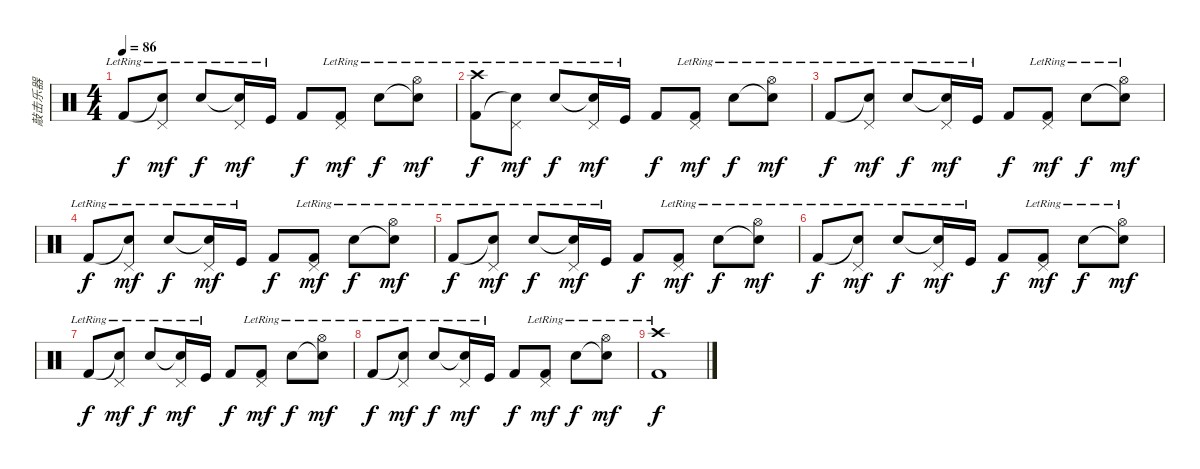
\track ("敲击乐器" "敲击乐器") {instrument percussion}
\staff {score}
\articulation defaults
\ts (4 4)
\tempo 86
\clef neutral
\ks c "Kick (hit) 2"{lr}.8{dy f}
("Snare (hit)"{t} "Pedal Hi-Hat (hit)"{lr}).8{dy mf} "Electric Snare (hit)"{lr}.8{dy f} ("Snare (hit)"{t} "Pedal Hi-Hat (hit)"{lr}).16{dy mf} "Kick (hit)"{lr}.16 "Kick (hit) 2".8{dy f} ("Kick (hit) 2"{lr} "Pedal Hi-Hat (hit)"{lr}).8{dy mf} "Electric Snare (hit)"{lr}.8{dy f} ("Snare (hit)"{t} "Hi-Hat (open)"{lr}).8{dy mf} |
("Kick (hit) 2"{lr} "Crash high (hit)"{lr}).8{dy f} ("Snare (hit)"{t} "Pedal Hi-Hat (hit)"{lr}).8{dy mf} "Electric Snare (hit)"{lr}.8{dy f} ("Snare (hit)"{t} "Pedal Hi-Hat (hit)"{lr}).16{dy mf} "Kick (hit)"{lr}.16 "Kick (hit) 2".8{dy f} ("Kick (hit) 2"{lr} "Pedal Hi-Hat (hit)"{lr}).8{dy mf} "Electric Snare (hit)"{lr}.8{dy f} ("Snare (hit)"{t} "Hi-Hat (open)"{lr}).8{dy mf} |
"Kick (hit) 2"{lr}.8{dy f} ("Snare (hit)"{t} "Pedal Hi-Hat (hit)"{lr}).8{dy mf} "Electric Snare (hit)"{lr}.8{dy f} ("Snare (hit)"{t} "Pedal Hi-Hat (hit)"{lr}).16{dy mf} "Kick (hit)"{lr}.16 "Kick (hit) 2".8{dy f} ("Kick (hit) 2"{lr} "Pedal Hi-Hat (hit)"{lr}).8{dy mf} "Electric Snare (hit)"{lr}.8{dy f} ("Snare (hit)"{t} "Hi-Hat (open)"{lr}).8{dy mf} |
"Kick (hit) 2"{lr}.8{dy f} ("Snare (hit)"{t} "Pedal Hi-Hat (hit)"{lr}).8{dy mf} "Electric Snare (hit)"{lr}.8{dy f} ("Snare (hit)"{t} "Pedal Hi-Hat (hit)"{lr}).16{dy mf} "Kick (hit)"{lr}.16 "Kick (hit) 2".8{dy f} ("Kick (hit) 2"{lr} "Pedal Hi-Hat (hit)"{lr}).8{dy mf} "Electric Snare (hit)"{lr}.8{dy f} ("Snare (hit)"{t} "Hi-Hat (open)"{lr}).8{dy mf} |
"Kick (hit) 2"{lr}.8{dy f} ("Snare (hit)"{t} "Pedal Hi-Hat (hit)"{lr}).8{dy mf} "Electric Snare (hit)"{lr}.8{dy f} ("Snare (hit)"{t} "Pedal Hi-Hat (hit)"{lr}).16{dy mf} "Kick (hit)"{lr}.16 "Kick (hit) 2".8{dy f} ("Kick (hit) 2"{lr} "Pedal Hi-Hat (hit)"{lr}).8{dy mf} "Electric Snare (hit)"{lr}.8{dy f} ("Snare (hit)"{t} "Hi-Hat (open)"{lr}).8{dy mf} |
"Kick (hit) 2"{lr}.8{dy f} ("Snare (hit)"{t} "Pedal Hi-Hat (hit)"{lr}).8{dy mf} "Electric Snare (hit)"{lr}.8{dy f} ("Snare (hit)"{t} "Pedal Hi-Hat (hit)"{lr}).16{dy mf} "Kick (hit)"{lr}.16 "Kick (hit) 2".8{dy f} ("Kick (hit) 2"{lr} "Pedal Hi-Hat (hit)"{lr}).8{dy mf} "Electric Snare (hit)"{lr}.8{dy f} ("Snare (hit)"{t} "Hi-Hat (open)"{lr}).8{dy mf} |
"Kick (hit) 2"{lr}.8{dy f} ("Snare (hit)"{t} "Pedal Hi-Hat (hit)"{lr}).8{dy mf} "Electric Snare (hit)"{lr}.8{dy f} ("Snare (hit)"{t} "Pedal Hi-Hat (hit)"{lr}).16{dy mf} "Kick (hit)"{lr}.16 "Kick (hit) 2".8{dy f} ("Kick (hit) 2"{lr} "Pedal Hi-Hat (hit)"{lr}).8{dy mf} "Electric Snare (hit)"{lr}.8{dy f} ("Snare (hit)"{t} "Hi-Hat (open)"{lr}).8{dy mf} |
"Kick (hit) 2"{lr}.8{dy f} ("Snare (hit)"{t} "Pedal Hi-Hat (hit)"{lr}).8{dy mf} "Electric Snare (hit)"{lr}.8{dy f} ("Snare (hit)"{t} "Pedal Hi-Hat (hit)"{lr}).16{dy mf} "Kick (hit)"{lr}.16 "Kick (hit) 2".8{dy f} ("Kick (hit) 2"{lr} "Pedal Hi-Hat (hit)"{lr}).8{dy mf} "Electric Snare (hit)"{lr}.8{dy f} ("Snare (hit)"{t} "Hi-Hat (open)"{lr}).8{dy mf} |
("Kick (hit) 2"{lr} "Crash high (hit)"{lr}).1{dy f}
